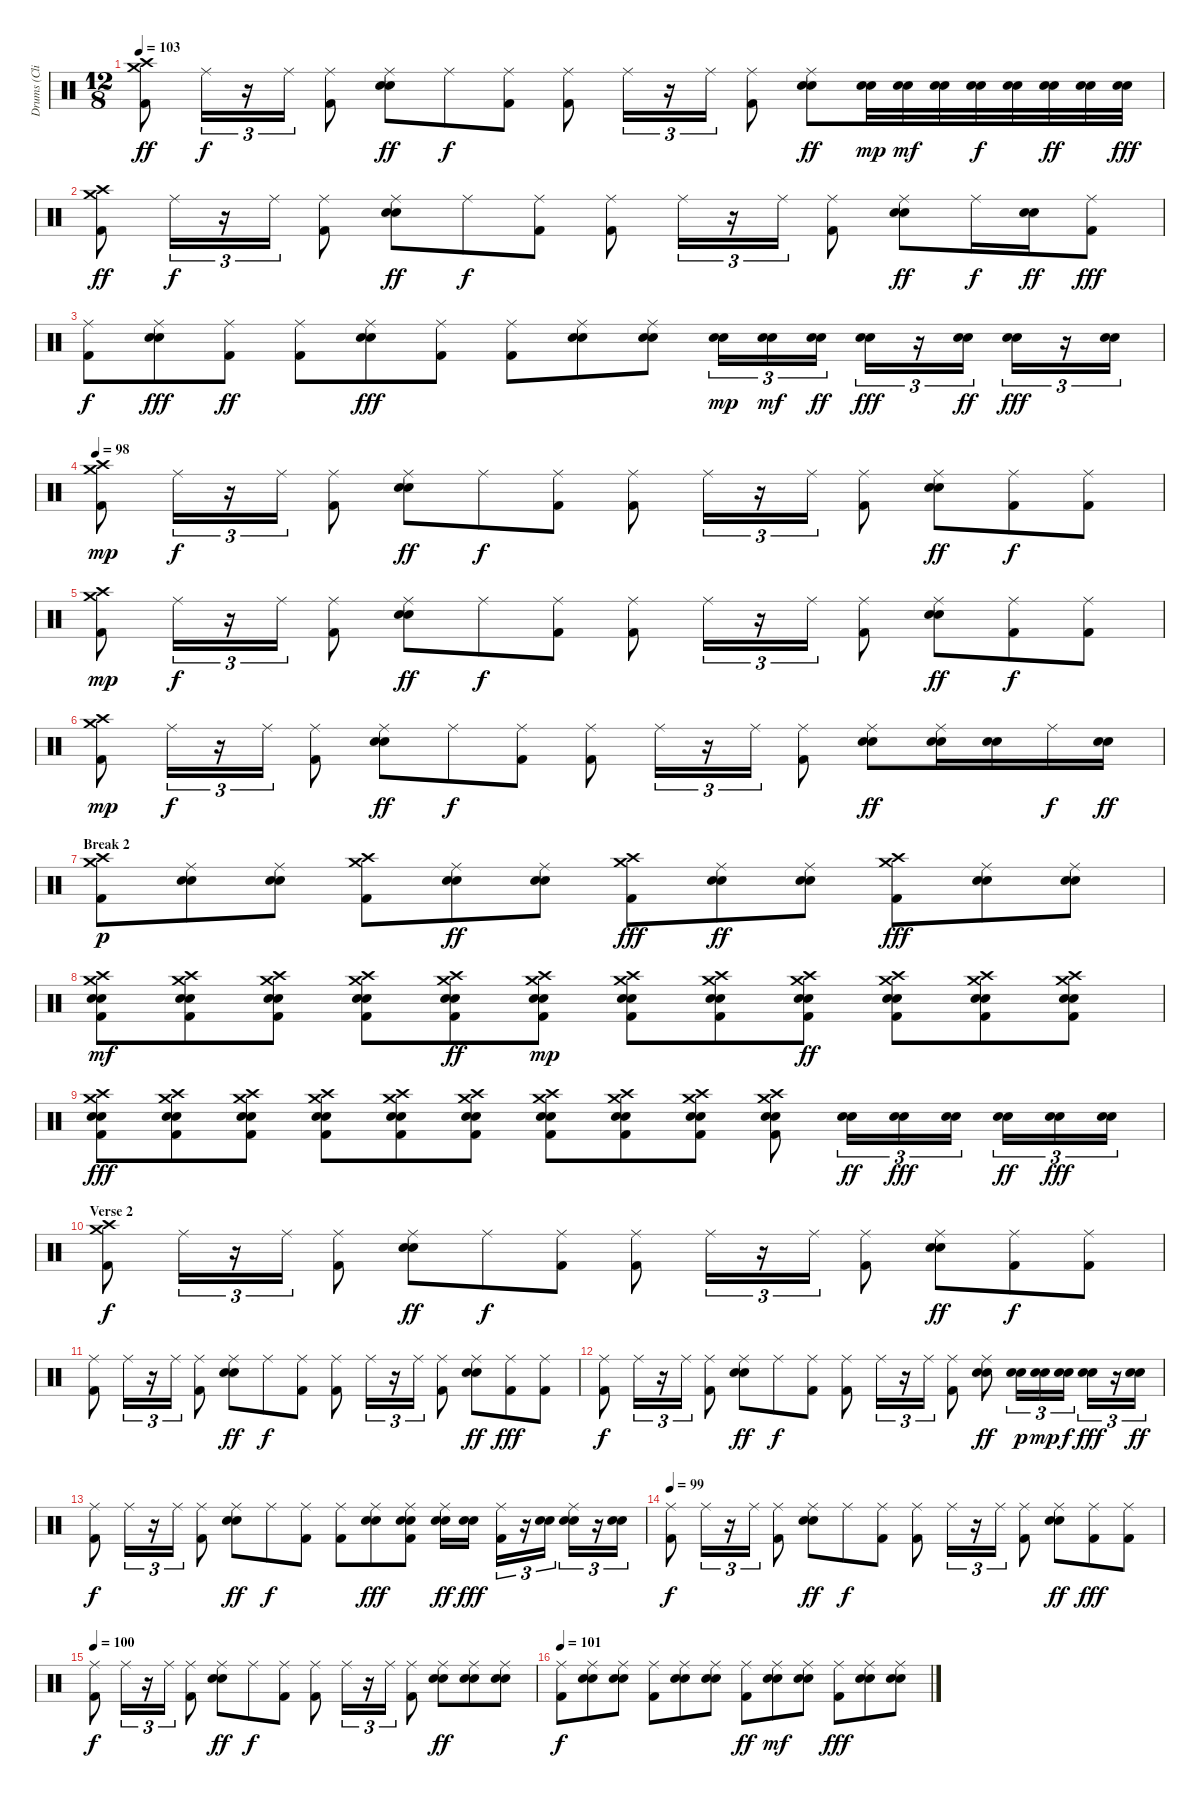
\track ("Drums (Clifford)" "Drums (Cli") {instrument percussion}
\staff {score}
\articulation defaults
\ts (12 8)
\tempo 103
\clef neutral
\ks c
("Crash medium (hit)" "Crash high (hit)" "Kick (hit) 2").8{dy ff} "Ride (middle)".16{tu (3 2) dy f} r.16{tu (3 2)} "Ride (middle)".16{tu (3 2)} ("Ride (middle)" "Kick (hit) 2").8 ("Ride (middle)" "Snare (hit) 2" "Electric Snare (hit)").8{dy ff} "Ride (middle)".8{dy f} ("Ride (middle)" "Kick (hit) 2").8 ("Ride (middle)" "Kick (hit) 2").8 "Ride (middle)".16{tu (3 2)} r.16{tu (3 2)} "Ride (middle)".16{tu (3 2)} ("Ride (middle)" "Kick (hit) 2").8 ("Ride (middle)" "Snare (hit) 2" "Electric Snare (hit)").8{dy ff} ("Snare (hit) 2" "Electric Snare (hit)").32{bd 480 dy mp} ("Snare (hit) 2" "Electric Snare (hit)").32{bu 480 dy mf} ("Snare (hit) 2" "Electric Snare (hit)").32{bd 480} ("Snare (hit) 2" "Electric Snare (hit)").32{bu 480 dy f} ("Snare (hit) 2" "Electric Snare (hit)").32{bd 480} ("Snare (hit) 2" "Electric Snare (hit)").32{bu 480 dy ff} ("Snare (hit) 2" "Electric Snare (hit)").32{bd 480} ("Snare (hit) 2" "Electric Snare (hit)").32{bu 480 dy fff} |
("Crash medium (hit)" "Crash high (hit)" "Kick (hit) 2").8{dy ff} "Ride (middle)".16{tu (3 2) dy f} r.16{tu (3 2)} "Ride (middle)".16{tu (3 2)} ("Ride (middle)" "Kick (hit) 2").8 ("Ride (middle)" "Snare (hit) 2" "Electric Snare (hit)").8{dy ff} "Ride (middle)".8{dy f} ("Ride (middle)" "Kick (hit) 2").8 ("Ride (middle)" "Kick (hit) 2").8 "Ride (middle)".16{tu (3 2)} r.16{tu (3 2)} "Ride (middle)".16{tu (3 2)} ("Ride (middle)" "Kick (hit) 2").8 ("Ride (middle)" "Snare (hit) 2" "Electric Snare (hit)").8{dy ff} "Ride (middle)".16{dy f} ("Snare (hit) 2" "Electric Snare (hit)").16{dy ff} ("Ride (middle)" "Kick (hit) 2").8{dy fff} |
("Ride (middle)" "Kick (hit) 2").8{dy f} ("Ride (middle)" "Snare (hit) 2" "Electric Snare (hit)").8{dy fff} ("Ride (middle)" "Kick (hit) 2").8{dy ff} ("Ride (middle)" "Kick (hit) 2").8 ("Ride (middle)" "Snare (hit) 2" "Electric Snare (hit)").8{dy fff} ("Ride (middle)" "Kick (hit) 2").8 ("Ride (middle)" "Kick (hit) 2").8 ("Ride (middle)" "Snare (hit) 2" "Electric Snare (hit)").8 ("Ride (middle)" "Snare (hit) 2" "Electric Snare (hit)").8 ("Snare (hit) 2" "Electric Snare (hit)").16{tu (3 2) dy mp} ("Snare (hit) 2" "Electric Snare (hit)").16{tu (3 2) dy mf} ("Snare (hit) 2" "Electric Snare (hit)").16{tu (3 2) dy ff} ("Snare (hit) 2" "Electric Snare (hit)").16{tu (3 2) dy fff} r.16{tu (3 2)} ("Snare (hit) 2" "Electric Snare (hit)").16{tu (3 2) dy ff} ("Snare (hit) 2" "Electric Snare (hit)").16{tu (3 2) dy fff} r.16{tu (3 2)} ("Snare (hit) 2" "Electric Snare (hit)").16{tu (3 2)} |
\tempo 98
("Crash medium (hit)" "Crash high (hit)" "Kick (hit) 2").8{dy mp} "Ride (middle)".16{tu (3 2) dy f} r.16{tu (3 2)} "Ride (middle)".16{tu (3 2)} ("Ride (middle)" "Kick (hit) 2").8 ("Ride (middle)" "Snare (hit) 2" "Electric Snare (hit)").8{dy ff} "Ride (middle)".8{dy f} ("Ride (middle)" "Kick (hit) 2").8 ("Ride (middle)" "Kick (hit) 2").8 "Ride (middle)".16{tu (3 2)} r.16{tu (3 2)} "Ride (middle)".16{tu (3 2)} ("Ride (middle)" "Kick (hit) 2").8 ("Ride (middle)" "Snare (hit) 2" "Electric Snare (hit)").8{dy ff} ("Ride (middle)" "Kick (hit) 2").8{dy f} ("Ride (middle)" "Kick (hit) 2").8 |
("Crash medium (hit)" "Crash high (hit)" "Kick (hit) 2").8{dy mp} "Ride (middle)".16{tu (3 2) dy f} r.16{tu (3 2)} "Ride (middle)".16{tu (3 2)} ("Ride (middle)" "Kick (hit) 2").8 ("Ride (middle)" "Snare (hit) 2" "Electric Snare (hit)").8{dy ff} "Ride (middle)".8{dy f} ("Ride (middle)" "Kick (hit) 2").8 ("Ride (middle)" "Kick (hit) 2").8 "Ride (middle)".16{tu (3 2)} r.16{tu (3 2)} "Ride (middle)".16{tu (3 2)} ("Ride (middle)" "Kick (hit) 2").8 ("Ride (middle)" "Snare (hit) 2" "Electric Snare (hit)").8{dy ff} ("Ride (middle)" "Kick (hit) 2").8{dy f} ("Ride (middle)" "Kick (hit) 2").8 |
("Crash medium (hit)" "Crash high (hit)" "Kick (hit) 2").8{dy mp} "Ride (middle)".16{tu (3 2) dy f} r.16{tu (3 2)} "Ride (middle)".16{tu (3 2)} ("Ride (middle)" "Kick (hit) 2").8 ("Ride (middle)" "Snare (hit) 2" "Electric Snare (hit)").8{dy ff} "Ride (middle)".8{dy f} ("Ride (middle)" "Kick (hit) 2").8 ("Ride (middle)" "Kick (hit) 2").8 "Ride (middle)".16{tu (3 2)} r.16{tu (3 2)} "Ride (middle)".16{tu (3 2)} ("Ride (middle)" "Kick (hit) 2").8 ("Ride (middle)" "Snare (hit) 2" "Electric Snare (hit)").8{dy ff} ("Ride (middle)" "Snare (hit) 2" "Electric Snare (hit)").16 ("Snare (hit) 2" "Electric Snare (hit)").16 "Ride (middle)".16{dy f} ("Snare (hit) 2" "Electric Snare (hit)").16{dy ff} |
\section ("" "Break 2")
("Crash medium (hit)" "Crash high (hit)" "Kick (hit) 2").8{dy p} ("Ride (middle)" "Snare (hit) 2" "Electric Snare (hit)").8 ("Ride (middle)" "Snare (hit) 2" "Electric Snare (hit)").8 ("Crash medium (hit)" "Crash high (hit)" "Kick (hit) 2").8 ("Ride (middle)" "Snare (hit) 2" "Electric Snare (hit)").8{dy ff} ("Ride (middle)" "Snare (hit) 2" "Electric Snare (hit)").8 ("Crash medium (hit)" "Crash high (hit)" "Kick (hit) 2").8{dy fff} ("Ride (middle)" "Snare (hit) 2" "Electric Snare (hit)").8{dy ff} ("Ride (middle)" "Snare (hit) 2" "Electric Snare (hit)").8 ("Crash medium (hit)" "Crash high (hit)" "Kick (hit) 2").8{dy fff} ("Ride (middle)" "Snare (hit) 2" "Electric Snare (hit)").8 ("Ride (middle)" "Snare (hit) 2" "Electric Snare (hit)").8 |
("Crash medium (hit)" "Crash high (hit)" "Snare (hit) 2" "Electric Snare (hit)" "Kick (hit) 2").8{dy mf volume 12} ("Crash medium (hit)" "Crash high (hit)" "Snare (hit) 2" "Electric Snare (hit)" "Kick (hit) 2").8 ("Crash medium (hit)" "Crash high (hit)" "Snare (hit) 2" "Electric Snare (hit)" "Kick (hit) 2").8 ("Crash medium (hit)" "Crash high (hit)" "Snare (hit) 2" "Electric Snare (hit)" "Kick (hit) 2").8 ("Crash medium (hit)" "Crash high (hit)" "Snare (hit) 2" "Electric Snare (hit)" "Kick (hit) 2").8{dy ff} ("Crash medium (hit)" "Crash high (hit)" "Snare (hit) 2" "Electric Snare (hit)" "Kick (hit) 2").8{dy mp} ("Crash medium (hit)" "Crash high (hit)" "Snare (hit) 2" "Electric Snare (hit)" "Kick (hit) 2").8{volume 16} ("Crash medium (hit)" "Crash high (hit)" "Snare (hit) 2" "Electric Snare (hit)" "Kick (hit) 2").8 ("Crash medium (hit)" "Crash high (hit)" "Snare (hit) 2" "Electric Snare (hit)" "Kick (hit) 2").8{dy ff} ("Crash medium (hit)" "Crash high (hit)" "Snare (hit) 2" "Electric Snare (hit)" "Kick (hit) 2").8 ("Crash medium (hit)" "Crash high (hit)" "Snare (hit) 2" "Electric Snare (hit)" "Kick (hit) 2").8 ("Crash medium (hit)" "Crash high (hit)" "Snare (hit) 2" "Electric Snare (hit)" "Kick (hit) 2").8 |
("Crash medium (hit)" "Crash high (hit)" "Snare (hit) 2" "Electric Snare (hit)" "Kick (hit) 2").8{dy fff} ("Crash medium (hit)" "Crash high (hit)" "Snare (hit) 2" "Electric Snare (hit)" "Kick (hit) 2").8 ("Crash medium (hit)" "Crash high (hit)" "Snare (hit) 2" "Electric Snare (hit)" "Kick (hit) 2").8 ("Crash medium (hit)" "Crash high (hit)" "Snare (hit) 2" "Electric Snare (hit)" "Kick (hit) 2").8 ("Crash medium (hit)" "Crash high (hit)" "Snare (hit) 2" "Electric Snare (hit)" "Kick (hit) 2").8 ("Crash medium (hit)" "Crash high (hit)" "Snare (hit) 2" "Electric Snare (hit)" "Kick (hit) 2").8 ("Crash medium (hit)" "Crash high (hit)" "Snare (hit) 2" "Electric Snare (hit)" "Kick (hit) 2").8 ("Crash medium (hit)" "Crash high (hit)" "Snare (hit) 2" "Electric Snare (hit)" "Kick (hit) 2").8 ("Crash medium (hit)" "Crash high (hit)" "Snare (hit) 2" "Electric Snare (hit)" "Kick (hit) 2").8 ("Crash medium (hit)" "Crash high (hit)" "Snare (hit) 2" "Electric Snare (hit)" "Kick (hit) 2").8 ("Snare (hit) 2" "Electric Snare (hit)").16{tu (3 2) dy ff} ("Snare (hit) 2" "Electric Snare (hit)").16{tu (3 2) dy fff} ("Snare (hit) 2" "Electric Snare (hit)").16{tu (3 2)} ("Snare (hit) 2" "Electric Snare (hit)").16{tu (3 2) dy ff} ("Snare (hit) 2" "Electric Snare (hit)").16{tu (3 2) dy fff} ("Snare (hit) 2" "Electric Snare (hit)").16{tu (3 2)} |
\section ("" "Verse 2")
("Crash medium (hit)" "Crash high (hit)" "Kick (hit) 2").8{dy f volume 12} "Ride (middle)".16{tu (3 2)} r.16{tu (3 2)} "Ride (middle)".16{tu (3 2)} ("Ride (middle)" "Kick (hit) 2").8 ("Ride (middle)" "Snare (hit) 2" "Electric Snare (hit)").8{dy ff} "Ride (middle)".8{dy f} ("Ride (middle)" "Kick (hit) 2").8 ("Ride (middle)" "Kick (hit) 2").8 "Ride (middle)".16{tu (3 2)} r.16{tu (3 2)} "Ride (middle)".16{tu (3 2)} ("Ride (middle)" "Kick (hit) 2").8 ("Ride (middle)" "Snare (hit) 2" "Electric Snare (hit)").8{dy ff} ("Ride (middle)" "Kick (hit) 2").8{dy f} ("Ride (middle)" "Kick (hit) 2").8 |
("Ride (middle)" "Kick (hit) 2").8 "Ride (middle)".16{tu (3 2)} r.16{tu (3 2)} "Ride (middle)".16{tu (3 2)} ("Ride (middle)" "Kick (hit) 2").8 ("Ride (middle)" "Snare (hit) 2" "Electric Snare (hit)").8{dy ff} "Ride (middle)".8{dy f} ("Ride (middle)" "Kick (hit) 2").8 ("Ride (middle)" "Kick (hit) 2").8 "Ride (middle)".16{tu (3 2)} r.16{tu (3 2)} "Ride (middle)".16{tu (3 2)} ("Ride (middle)" "Kick (hit) 2").8 ("Ride (middle)" "Snare (hit) 2" "Electric Snare (hit)").8{dy ff} ("Ride (middle)" "Kick (hit) 2").8{dy fff} ("Ride (middle)" "Kick (hit) 2").8 |
("Ride (middle)" "Kick (hit) 2").8{dy f} "Ride (middle)".16{tu (3 2)} r.16{tu (3 2)} "Ride (middle)".16{tu (3 2)} ("Ride (middle)" "Kick (hit) 2").8 ("Ride (middle)" "Snare (hit) 2" "Electric Snare (hit)").8{dy ff} "Ride (middle)".8{dy f} ("Ride (middle)" "Kick (hit) 2").8 ("Ride (middle)" "Kick (hit) 2").8 "Ride (middle)".16{tu (3 2)} r.16{tu (3 2)} "Ride (middle)".16{tu (3 2)} ("Ride (middle)" "Kick (hit) 2").8 ("Ride (middle)" "Snare (hit) 2" "Electric Snare (hit)").8{dy ff} ("Snare (hit) 2" "Electric Snare (hit)").16{tu (3 2) dy p} ("Snare (hit) 2" "Electric Snare (hit)").16{tu (3 2) dy mp} ("Snare (hit) 2" "Electric Snare (hit)").16{tu (3 2) dy f} ("Snare (hit) 2" "Electric Snare (hit)").16{tu (3 2) dy fff} r.16{tu (3 2)} ("Snare (hit) 2" "Electric Snare (hit)").16{tu (3 2) dy ff} |
("Ride (middle)" "Kick (hit) 2").8{dy f} "Ride (middle)".16{tu (3 2)} r.16{tu (3 2)} "Ride (middle)".16{tu (3 2)} ("Ride (middle)" "Kick (hit) 2").8 ("Ride (middle)" "Snare (hit) 2" "Electric Snare (hit)").8{dy ff} "Ride (middle)".8{dy f} ("Ride (middle)" "Kick (hit) 2").8 ("Ride (middle)" "Kick (hit) 2").8 ("Ride (middle)" "Snare (hit) 2" "Electric Snare (hit)").8{dy fff} ("Ride (middle)" "Snare (hit) 2" "Electric Snare (hit)" "Kick (hit) 2").8 ("Ride (middle)" "Snare (hit) 2" "Electric Snare (hit)").16{dy ff} ("Snare (hit) 2" "Electric Snare (hit)").16{dy fff} ("Ride (middle)" "Kick (hit) 2").16{tu (3 2)} r.16{tu (3 2)} ("Snare (hit) 2" "Electric Snare (hit)").16{tu (3 2)} ("Ride (middle)" "Snare (hit) 2" "Electric Snare (hit)").16{tu (3 2)} r.16{tu (3 2)} ("Snare (hit) 2" "Electric Snare (hit)").16{tu (3 2)} |
\tempo 99
("Ride (middle)" "Kick (hit) 2").8{dy f} "Ride (middle)".16{tu (3 2)} r.16{tu (3 2)} "Ride (middle)".16{tu (3 2)} ("Ride (middle)" "Kick (hit) 2").8 ("Ride (middle)" "Snare (hit) 2" "Electric Snare (hit)").8{dy ff} "Ride (middle)".8{dy f} ("Ride (middle)" "Kick (hit) 2").8 ("Ride (middle)" "Kick (hit) 2").8 "Ride (middle)".16{tu (3 2)} r.16{tu (3 2)} "Ride (middle)".16{tu (3 2)} ("Ride (middle)" "Kick (hit) 2").8 ("Ride (middle)" "Snare (hit) 2" "Electric Snare (hit)").8{dy ff} ("Ride (middle)" "Kick (hit) 2").8{dy fff} ("Ride (middle)" "Kick (hit) 2").8 |
\tempo 100
("Ride (middle)" "Kick (hit) 2").8{dy f} "Ride (middle)".16{tu (3 2)} r.16{tu (3 2)} "Ride (middle)".16{tu (3 2)} ("Ride (middle)" "Kick (hit) 2").8 ("Ride (middle)" "Snare (hit) 2" "Electric Snare (hit)").8{dy ff} "Ride (middle)".8{dy f} ("Ride (middle)" "Kick (hit) 2").8 ("Ride (middle)" "Kick (hit) 2").8 "Ride (middle)".16{tu (3 2)} r.16{tu (3 2)} "Ride (middle)".16{tu (3 2)} ("Ride (middle)" "Kick (hit) 2").8 ("Ride (middle)" "Snare (hit) 2" "Electric Snare (hit)").8{dy ff} ("Ride (middle)" "Snare (hit) 2" "Electric Snare (hit)").8 ("Ride (middle)" "Snare (hit) 2" "Electric Snare (hit)").8 |
\tempo 101
("Ride (middle)" "Kick (hit) 2").8{dy f} ("Ride (middle)" "Snare (hit) 2" "Electric Snare (hit)").8 ("Ride (middle)" "Snare (hit) 2" "Electric Snare (hit)").8 ("Ride (middle)" "Kick (hit) 2").8 ("Ride (middle)" "Snare (hit) 2" "Electric Snare (hit)").8 ("Ride (middle)" "Snare (hit) 2" "Electric Snare (hit)").8 ("Ride (middle)" "Kick (hit) 2").8{dy ff} ("Ride (middle)" "Snare (hit) 2" "Electric Snare (hit)").8{dy mf} ("Ride (middle)" "Snare (hit) 2" "Electric Snare (hit)").8 ("Ride (middle)" "Kick (hit) 2").8{dy fff} ("Ride (middle)" "Snare (hit) 2" "Electric Snare (hit)").8 ("Ride (middle)" "Snare (hit) 2" "Electric Snare (hit)").8
